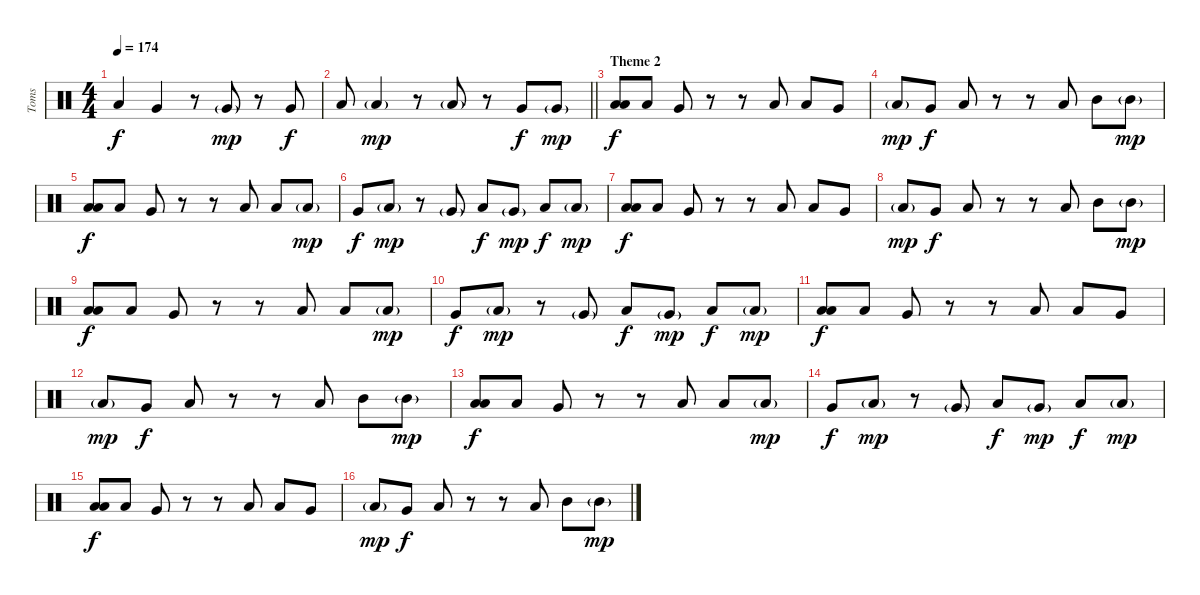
\track ("Toms" "Toms") {instrument percussion}
\staff {score}
\articulation defaults
\ts (4 4)
\tempo 174
\clef neutral
\ks c "Low Tom (hit)".4{dy f} "Very Low Tom (hit)".4
r.8 "Very Low Tom (hit)"{g}.8{dy mp} r.8 "Very Low Tom (hit)".8{dy f} |
\barLineRight lightlight "Low Tom (hit)".8 "Low Floor Tom (hit)"{g}.4{dy mp}
r.8 "Low Floor Tom (hit)"{g}.8 r.8 "Very Low Tom (hit)".8{dy f} "Very Low Tom (hit)"{g}.8{dy mp} |
\section ("" "Theme 2")
("Low Tom (hit)" "Low Floor Tom (hit)").8{dy f} "Low Tom (hit)".8 "Very Low Tom (hit)".8 r.8 r.8 "Low Floor Tom (hit)".8 "Low Floor Tom (hit)".8 "Very Low Tom (hit)".8 |
"Low Tom (hit)"{g}.8{dy mp} "Very Low Tom (hit)".8{dy f} "Low Floor Tom (hit)".8 r.8 r.8 "Low Floor Tom (hit)".8 "Mid Tom (hit)".8 "Mid Tom (hit)"{g}.8{dy mp} |
("Low Tom (hit)" "Low Floor Tom (hit)").8{dy f} "Low Tom (hit)".8 "Very Low Tom (hit)".8 r.8 r.8 "Low Floor Tom (hit)".8 "Low Floor Tom (hit)".8 "Low Floor Tom (hit)"{g}.8{dy mp} |
"Very Low Tom (hit)".8{dy f} "Low Floor Tom (hit)"{g}.8{dy mp} r.8 "Very Low Tom (hit)"{g}.8 "Low Tom (hit)".8{dy f} "Very Low Tom (hit)"{g}.8{dy mp} "Low Tom (hit)".8{dy f} "Low Tom (hit)"{g}.8{dy mp} |
("Low Tom (hit)" "Low Floor Tom (hit)").8{dy f} "Low Tom (hit)".8 "Very Low Tom (hit)".8 r.8 r.8 "Low Floor Tom (hit)".8 "Low Floor Tom (hit)".8 "Very Low Tom (hit)".8 |
"Low Tom (hit)"{g}.8{dy mp} "Very Low Tom (hit)".8{dy f} "Low Floor Tom (hit)".8 r.8 r.8 "Low Floor Tom (hit)".8 "Mid Tom (hit)".8 "Mid Tom (hit)"{g}.8{dy mp} |
("Low Tom (hit)" "Low Floor Tom (hit)").8{dy f} "Low Tom (hit)".8 "Very Low Tom (hit)".8 r.8 r.8 "Low Floor Tom (hit)".8 "Low Floor Tom (hit)".8 "Low Floor Tom (hit)"{g}.8{dy mp} |
"Very Low Tom (hit)".8{dy f} "Low Floor Tom (hit)"{g}.8{dy mp} r.8 "Very Low Tom (hit)"{g}.8 "Low Tom (hit)".8{dy f} "Very Low Tom (hit)"{g}.8{dy mp} "Low Tom (hit)".8{dy f} "Low Tom (hit)"{g}.8{dy mp} |
("Low Tom (hit)" "Low Floor Tom (hit)").8{dy f} "Low Tom (hit)".8 "Very Low Tom (hit)".8 r.8 r.8 "Low Floor Tom (hit)".8 "Low Floor Tom (hit)".8 "Very Low Tom (hit)".8 |
"Low Tom (hit)"{g}.8{dy mp} "Very Low Tom (hit)".8{dy f} "Low Floor Tom (hit)".8 r.8 r.8 "Low Floor Tom (hit)".8 "Mid Tom (hit)".8 "Mid Tom (hit)"{g}.8{dy mp} |
("Low Tom (hit)" "Low Floor Tom (hit)").8{dy f} "Low Tom (hit)".8 "Very Low Tom (hit)".8 r.8 r.8 "Low Floor Tom (hit)".8 "Low Floor Tom (hit)".8 "Low Floor Tom (hit)"{g}.8{dy mp} |
"Very Low Tom (hit)".8{dy f} "Low Floor Tom (hit)"{g}.8{dy mp} r.8 "Very Low Tom (hit)"{g}.8 "Low Tom (hit)".8{dy f} "Very Low Tom (hit)"{g}.8{dy mp} "Low Tom (hit)".8{dy f} "Low Tom (hit)"{g}.8{dy mp} |
("Low Tom (hit)" "Low Floor Tom (hit)").8{dy f} "Low Tom (hit)".8 "Very Low Tom (hit)".8 r.8 r.8 "Low Floor Tom (hit)".8 "Low Floor Tom (hit)".8 "Very Low Tom (hit)".8 |
"Low Tom (hit)"{g}.8{dy mp} "Very Low Tom (hit)".8{dy f} "Low Floor Tom (hit)".8 r.8 r.8 "Low Floor Tom (hit)".8 "Mid Tom (hit)".8 "Mid Tom (hit)"{g}.8{dy mp}
